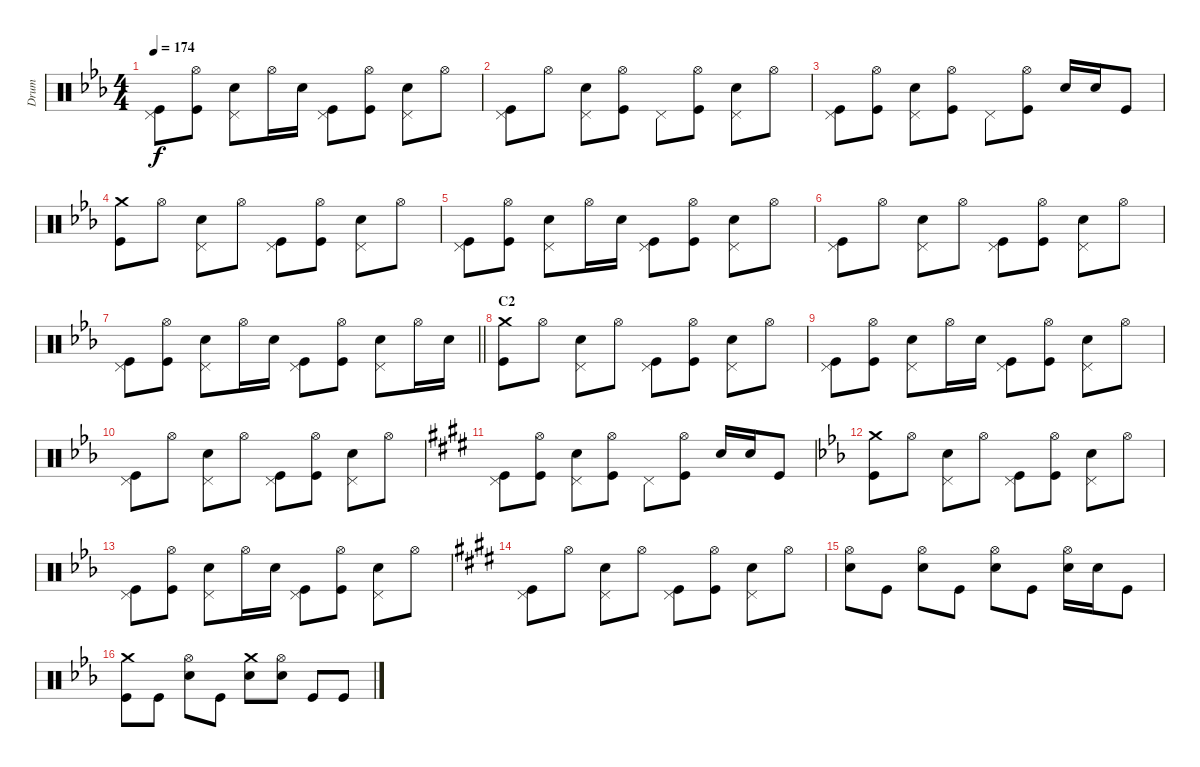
\track ("Drum" "Drum") {instrument percussion}
\staff {score}
\articulation defaults
\ts (4 4)
\tempo 174
\clef neutral
\ks eb
("Pedal Hi-Hat (hit)" "Kick (hit)").8{dy f} ("Hi-Hat (open)" "Kick (hit)").8 ("Pedal Hi-Hat (hit)" "Snare (hit) 2").8 "Hi-Hat (open)".16 "Snare (hit) 2".16 ("Pedal Hi-Hat (hit)" "Kick (hit)").8 ("Hi-Hat (open)" "Kick (hit)").8 ("Pedal Hi-Hat (hit)" "Snare (hit) 2").8 "Hi-Hat (open)".8 |
("Pedal Hi-Hat (hit)" "Kick (hit)").8 "Hi-Hat (open)".8 ("Pedal Hi-Hat (hit)" "Snare (hit) 2").8 ("Hi-Hat (open)" "Kick (hit)").8 "Pedal Hi-Hat (hit)".8 ("Hi-Hat (open)" "Kick (hit)").8 ("Pedal Hi-Hat (hit)" "Snare (hit) 2").8 "Hi-Hat (open)".8 |
("Pedal Hi-Hat (hit)" "Kick (hit)").8 ("Hi-Hat (open)" "Kick (hit)").8 ("Pedal Hi-Hat (hit)" "Snare (hit) 2").8 ("Hi-Hat (open)" "Kick (hit)").8 "Pedal Hi-Hat (hit)".8 ("Hi-Hat (open)" "Kick (hit)").8 "Snare (hit) 2".16 "Snare (hit) 2".16 "Kick (hit)".8 |
("Crash medium (hit)" "Kick (hit)").8 "Hi-Hat (open)".8 ("Pedal Hi-Hat (hit)" "Snare (hit) 2").8 "Hi-Hat (open)".8 ("Pedal Hi-Hat (hit)" "Kick (hit)").8 ("Hi-Hat (open)" "Kick (hit)").8 ("Pedal Hi-Hat (hit)" "Snare (hit) 2").8 "Hi-Hat (open)".8 |
("Pedal Hi-Hat (hit)" "Kick (hit)").8 ("Hi-Hat (open)" "Kick (hit)").8 ("Pedal Hi-Hat (hit)" "Snare (hit) 2").8 "Hi-Hat (open)".16 "Snare (hit) 2".16 ("Pedal Hi-Hat (hit)" "Kick (hit)").8 ("Hi-Hat (open)" "Kick (hit)").8 ("Pedal Hi-Hat (hit)" "Snare (hit) 2").8 "Hi-Hat (open)".8 |
("Pedal Hi-Hat (hit)" "Kick (hit)").8 "Hi-Hat (open)".8 ("Pedal Hi-Hat (hit)" "Snare (hit) 2").8 "Hi-Hat (open)".8 ("Pedal Hi-Hat (hit)" "Kick (hit)").8 ("Hi-Hat (open)" "Kick (hit)").8 ("Pedal Hi-Hat (hit)" "Snare (hit) 2").8 "Hi-Hat (open)".8 |
\barLineRight lightlight
("Pedal Hi-Hat (hit)" "Kick (hit)").8 ("Hi-Hat (open)" "Kick (hit)").8 ("Pedal Hi-Hat (hit)" "Snare (hit) 2").8 "Hi-Hat (open)".16 "Snare (hit) 2".16 ("Pedal Hi-Hat (hit)" "Kick (hit)").8 ("Hi-Hat (open)" "Kick (hit)").8 ("Pedal Hi-Hat (hit)" "Snare (hit) 2").8 "Hi-Hat (open)".16 "Snare (hit) 2".16 |
\section ("" "C2")
("Crash medium (hit)" "Kick (hit)").8 "Hi-Hat (open)".8 ("Pedal Hi-Hat (hit)" "Snare (hit) 2").8 "Hi-Hat (open)".8 ("Pedal Hi-Hat (hit)" "Kick (hit)").8 ("Hi-Hat (open)" "Kick (hit)").8 ("Pedal Hi-Hat (hit)" "Snare (hit) 2").8 "Hi-Hat (open)".8 |
("Pedal Hi-Hat (hit)" "Kick (hit)").8 ("Hi-Hat (open)" "Kick (hit)").8 ("Pedal Hi-Hat (hit)" "Snare (hit) 2").8 "Hi-Hat (open)".16 "Snare (hit) 2".16 ("Pedal Hi-Hat (hit)" "Kick (hit)").8 ("Hi-Hat (open)" "Kick (hit)").8 ("Pedal Hi-Hat (hit)" "Snare (hit) 2").8 "Hi-Hat (open)".8 |
("Pedal Hi-Hat (hit)" "Kick (hit)").8 "Hi-Hat (open)".8 ("Pedal Hi-Hat (hit)" "Snare (hit) 2").8 "Hi-Hat (open)".8 ("Pedal Hi-Hat (hit)" "Kick (hit)").8 ("Hi-Hat (open)" "Kick (hit)").8 ("Pedal Hi-Hat (hit)" "Snare (hit) 2").8 "Hi-Hat (open)".8 |
\ks e
("Pedal Hi-Hat (hit)" "Kick (hit)").8 ("Hi-Hat (open)" "Kick (hit)").8 ("Pedal Hi-Hat (hit)" "Snare (hit) 2").8 ("Hi-Hat (open)" "Kick (hit)").8 "Pedal Hi-Hat (hit)".8 ("Hi-Hat (open)" "Kick (hit)").8 "Snare (hit) 2".16 "Snare (hit) 2".16 "Kick (hit)".8 |
\ks eb
("Crash medium (hit)" "Kick (hit)").8 "Hi-Hat (open)".8 ("Pedal Hi-Hat (hit)" "Snare (hit) 2").8 "Hi-Hat (open)".8 ("Pedal Hi-Hat (hit)" "Kick (hit)").8 ("Hi-Hat (open)" "Kick (hit)").8 ("Pedal Hi-Hat (hit)" "Snare (hit) 2").8 "Hi-Hat (open)".8 |
("Pedal Hi-Hat (hit)" "Kick (hit)").8 ("Hi-Hat (open)" "Kick (hit)").8 ("Pedal Hi-Hat (hit)" "Snare (hit) 2").8 "Hi-Hat (open)".16 "Snare (hit) 2".16 ("Pedal Hi-Hat (hit)" "Kick (hit)").8 ("Hi-Hat (open)" "Kick (hit)").8 ("Pedal Hi-Hat (hit)" "Snare (hit) 2").8 "Hi-Hat (open)".8 |
\ks e
("Pedal Hi-Hat (hit)" "Kick (hit)").8 "Hi-Hat (open)".8 ("Pedal Hi-Hat (hit)" "Snare (hit) 2").8 "Hi-Hat (open)".8 ("Pedal Hi-Hat (hit)" "Kick (hit)").8 ("Hi-Hat (open)" "Kick (hit)").8 ("Pedal Hi-Hat (hit)" "Snare (hit) 2").8 "Hi-Hat (open)".8 |
("Hi-Hat (open)" "Snare (hit) 2").8 "Kick (hit)".8 ("Hi-Hat (open)" "Snare (hit) 2").8 "Kick (hit)".8 ("Hi-Hat (open)" "Snare (hit) 2").8 "Kick (hit)".8 ("Hi-Hat (open)" "Snare (hit) 2").16 "Snare (hit) 2".16 "Kick (hit)".8 |
\ks eb
("Crash medium (hit)" "Kick (hit)").8 "Kick (hit)".8 ("Hi-Hat (open)" "Snare (hit) 2").8 "Kick (hit)".8 ("Crash medium (hit)" "Snare (hit) 2").8 ("Hi-Hat (open)" "Snare (hit) 2").8 "Kick (hit)".8 "Kick (hit)".8
